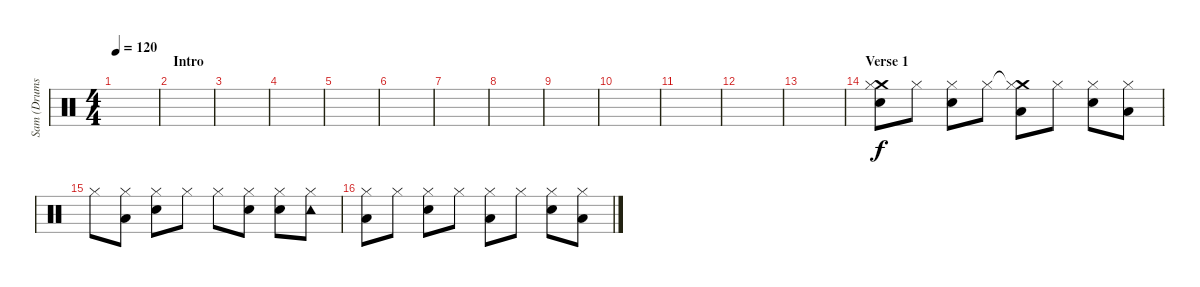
\track ("Sam (Drums)" "Sam (Drums") {instrument percussion}
\staff {score}
\articulation defaults
\ts (4 4)
\tempo 120
\clef neutral
\ks c
|
\section ("" "Intro")
|
|
|
|
|
|
|
|
|
|
|
|
\section ("" "Verse 1")
("Crash medium (hit)" "Snare (hit) 2" "Hi-Hat (closed)").8 "Hi-Hat (closed)".8 ("Snare (hit) 2" "Hi-Hat (closed)").8 "Hi-Hat (closed)".8 ("Crash medium (hit)"{t} "Low Tom (hit)" "Hi-Hat (closed)").8 "Hi-Hat (closed)".8 ("Snare (hit) 2" "Hi-Hat (closed)").8 ("Low Tom (hit)" "Hi-Hat (closed)").8 |
"Hi-Hat (closed)".8 ("Low Tom (hit)" "Hi-Hat (closed)").8 ("Snare (hit) 2" "Hi-Hat (closed)").8 "Hi-Hat (closed)".8 "Hi-Hat (closed)".8 ("Snare (hit) 2" "Hi-Hat (closed)").8 ("Snare (hit) 2" "Hi-Hat (closed)").8 ("Tambourine (hit)" "Hi-Hat (closed)").8 |
("Low Tom (hit)" "Hi-Hat (closed)").8 "Hi-Hat (closed)".8 ("Snare (hit) 2" "Hi-Hat (closed)").8 "Hi-Hat (closed)".8 ("Low Tom (hit)" "Hi-Hat (closed)").8 "Hi-Hat (closed)".8 ("Snare (hit) 2" "Hi-Hat (closed)").8 ("Low Tom (hit)" "Hi-Hat (closed)").8
